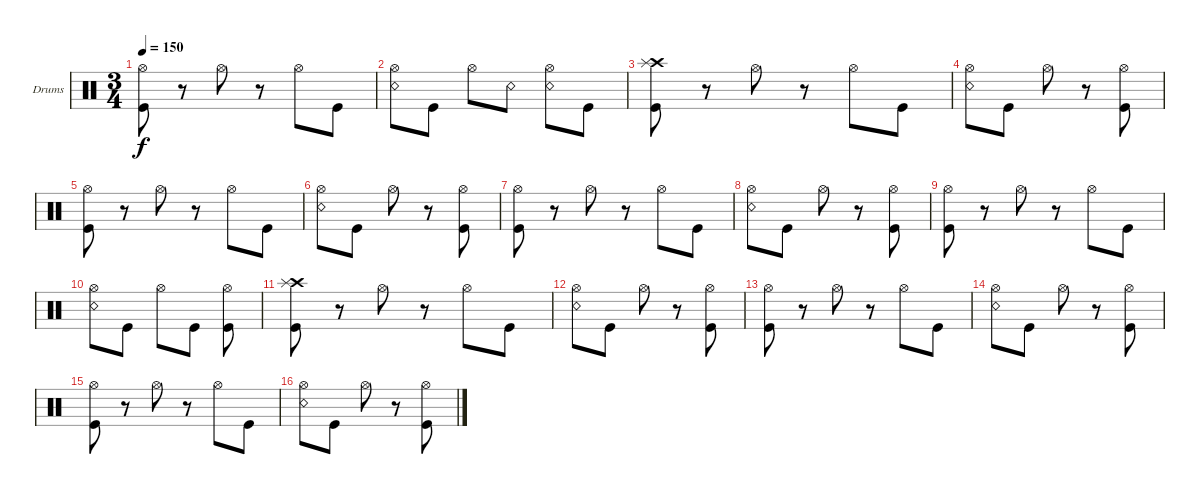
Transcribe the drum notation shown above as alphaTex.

\defaultSystemsLayout 4
\bracketExtendMode groupsimilarinstruments
\firstSystemTrackNameOrientation horizontal
\otherSystemsTrackNameOrientation horizontal
\track ("Scott" "Drums") {mute instrument percussion}
\staff {score}
\articulation defaults
\ts (3 4)
\tempo 150
\clef neutral
\scale
0.333333
\ks c
("Kick (hit)" "Hi-Hat (open)").8{dy f} r.8 "Hi-Hat (open)".8 r.8 "Hi-Hat (open)".8 "Kick (hit)".8 |
\scale
0.333333 ("Snare (rim shot)" "Hi-Hat (open)").8 "Kick (hit)".8 "Hi-Hat (open)".8 "Snare (rim shot)".8 ("Hi-Hat (open)" "Snare (rim shot)").8 "Kick (hit)".8 |
\scale
0.333333 ("Kick (hit)" "Crash high (hit)" "Splash (hit)").8 r.8 "Hi-Hat (open)".8 r.8 "Hi-Hat (open)".8 "Kick (hit)".8 |
\scale
0.333333 ("Snare (rim shot)" "Hi-Hat (open)").8 "Kick (hit)".8 "Hi-Hat (open)".8 r.8 ("Kick (hit)" "Hi-Hat (open)").8 |
\scale
0.333333 ("Kick (hit)" "Hi-Hat (open)").8 r.8 "Hi-Hat (open)".8 r.8 "Hi-Hat (open)".8 "Kick (hit)".8 |
\scale
0.333333 ("Snare (rim shot)" "Hi-Hat (open)").8 "Kick (hit)".8 "Hi-Hat (open)".8 r.8 ("Kick (hit)" "Hi-Hat (open)").8 |
\scale
0.333333 ("Kick (hit)" "Hi-Hat (open)").8 r.8 "Hi-Hat (open)".8 r.8 "Hi-Hat (open)".8 "Kick (hit)".8 |
\scale
0.333333 ("Snare (rim shot)" "Hi-Hat (open)").8 "Kick (hit)".8 "Hi-Hat (open)".8 r.8 ("Kick (hit)" "Hi-Hat (open)").8 |
\scale
0.333333 ("Kick (hit)" "Hi-Hat (open)").8 r.8 "Hi-Hat (open)".8 r.8 "Hi-Hat (open)".8 "Kick (hit)".8 |
\scale
0.333333 ("Snare (rim shot)" "Hi-Hat (open)").8 "Kick (hit)".8 "Hi-Hat (open)".8 "Kick (hit)".8 ("Kick (hit)" "Hi-Hat (open)").8 |
\scale
0.333333 ("Kick (hit)" "Crash high (hit)" "Splash (hit)").8 r.8 "Hi-Hat (open)".8 r.8 "Hi-Hat (open)".8 "Kick (hit)".8 |
\scale
0.333333 ("Snare (rim shot)" "Hi-Hat (open)").8 "Kick (hit)".8 "Hi-Hat (open)".8 r.8 ("Kick (hit)" "Hi-Hat (open)").8 |
\scale
0.333333 ("Kick (hit)" "Hi-Hat (open)").8 r.8 "Hi-Hat (open)".8 r.8 "Hi-Hat (open)".8 "Kick (hit)".8 |
\scale
0.333333 ("Snare (rim shot)" "Hi-Hat (open)").8 "Kick (hit)".8 "Hi-Hat (open)".8 r.8 ("Kick (hit)" "Hi-Hat (open)").8 |
\scale
0.333333 ("Kick (hit)" "Hi-Hat (open)").8 r.8 "Hi-Hat (open)".8 r.8 "Hi-Hat (open)".8 "Kick (hit)".8 |
\scale
0.333333 ("Snare (rim shot)" "Hi-Hat (open)").8 "Kick (hit)".8 "Hi-Hat (open)".8 r.8 ("Kick (hit)" "Hi-Hat (open)").8
